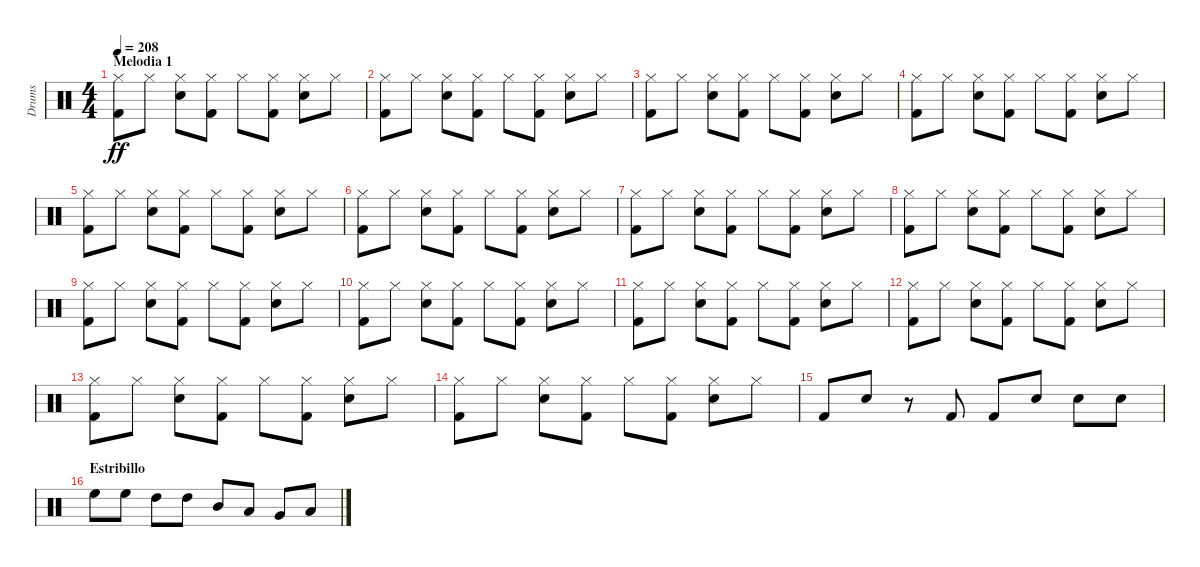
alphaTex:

\track ("Drums" "Drums") {instrument percussion}
\staff {score}
\articulation defaults
\ts (4 4)
\section ("" "Melodia 1")
\tempo 208
\clef neutral
\ks c
("Kick (hit) 2" "Hi-Hat (closed)").8{dy ff} "Hi-Hat (closed)".8 ("Snare (hit) 2" "Hi-Hat (closed)").8 ("Kick (hit) 2" "Hi-Hat (closed)").8 "Hi-Hat (closed)".8 ("Kick (hit) 2" "Hi-Hat (closed)").8 ("Snare (hit) 2" "Hi-Hat (closed)").8 "Hi-Hat (closed)".8 |
("Kick (hit) 2" "Hi-Hat (closed)").8 "Hi-Hat (closed)".8 ("Snare (hit) 2" "Hi-Hat (closed)").8 ("Kick (hit) 2" "Hi-Hat (closed)").8 "Hi-Hat (closed)".8 ("Kick (hit) 2" "Hi-Hat (closed)").8 ("Snare (hit) 2" "Hi-Hat (closed)").8 "Hi-Hat (closed)".8 |
("Kick (hit) 2" "Hi-Hat (closed)").8 "Hi-Hat (closed)".8 ("Snare (hit) 2" "Hi-Hat (closed)").8 ("Kick (hit) 2" "Hi-Hat (closed)").8 "Hi-Hat (closed)".8 ("Kick (hit) 2" "Hi-Hat (closed)").8 ("Snare (hit) 2" "Hi-Hat (closed)").8 "Hi-Hat (closed)".8 |
("Kick (hit) 2" "Hi-Hat (closed)").8 "Hi-Hat (closed)".8 ("Snare (hit) 2" "Hi-Hat (closed)").8 ("Kick (hit) 2" "Hi-Hat (closed)").8 "Hi-Hat (closed)".8 ("Kick (hit) 2" "Hi-Hat (closed)").8 ("Snare (hit) 2" "Hi-Hat (closed)").8 "Hi-Hat (closed)".8 |
("Kick (hit) 2" "Hi-Hat (closed)").8 "Hi-Hat (closed)".8 ("Snare (hit) 2" "Hi-Hat (closed)").8 ("Kick (hit) 2" "Hi-Hat (closed)").8 "Hi-Hat (closed)".8 ("Kick (hit) 2" "Hi-Hat (closed)").8 ("Snare (hit) 2" "Hi-Hat (closed)").8 "Hi-Hat (closed)".8 |
("Kick (hit) 2" "Hi-Hat (closed)").8 "Hi-Hat (closed)".8 ("Snare (hit) 2" "Hi-Hat (closed)").8 ("Kick (hit) 2" "Hi-Hat (closed)").8 "Hi-Hat (closed)".8 ("Kick (hit) 2" "Hi-Hat (closed)").8 ("Snare (hit) 2" "Hi-Hat (closed)").8 "Hi-Hat (closed)".8 |
("Kick (hit) 2" "Hi-Hat (closed)").8 "Hi-Hat (closed)".8 ("Snare (hit) 2" "Hi-Hat (closed)").8 ("Kick (hit) 2" "Hi-Hat (closed)").8 "Hi-Hat (closed)".8 ("Kick (hit) 2" "Hi-Hat (closed)").8 ("Snare (hit) 2" "Hi-Hat (closed)").8 "Hi-Hat (closed)".8 |
("Kick (hit) 2" "Hi-Hat (closed)").8 "Hi-Hat (closed)".8 ("Snare (hit) 2" "Hi-Hat (closed)").8 ("Kick (hit) 2" "Hi-Hat (closed)").8 "Hi-Hat (closed)".8 ("Kick (hit) 2" "Hi-Hat (closed)").8 ("Snare (hit) 2" "Hi-Hat (closed)").8 "Hi-Hat (closed)".8 |
("Kick (hit) 2" "Hi-Hat (closed)").8 "Hi-Hat (closed)".8 ("Snare (hit) 2" "Hi-Hat (closed)").8 ("Kick (hit) 2" "Hi-Hat (closed)").8 "Hi-Hat (closed)".8 ("Kick (hit) 2" "Hi-Hat (closed)").8 ("Snare (hit) 2" "Hi-Hat (closed)").8 "Hi-Hat (closed)".8 |
("Kick (hit) 2" "Hi-Hat (closed)").8 "Hi-Hat (closed)".8 ("Snare (hit) 2" "Hi-Hat (closed)").8 ("Kick (hit) 2" "Hi-Hat (closed)").8 "Hi-Hat (closed)".8 ("Kick (hit) 2" "Hi-Hat (closed)").8 ("Snare (hit) 2" "Hi-Hat (closed)").8 "Hi-Hat (closed)".8 |
("Kick (hit) 2" "Hi-Hat (closed)").8 "Hi-Hat (closed)".8 ("Snare (hit) 2" "Hi-Hat (closed)").8 ("Kick (hit) 2" "Hi-Hat (closed)").8 "Hi-Hat (closed)".8 ("Kick (hit) 2" "Hi-Hat (closed)").8 ("Snare (hit) 2" "Hi-Hat (closed)").8 "Hi-Hat (closed)".8 |
("Kick (hit) 2" "Hi-Hat (closed)").8 "Hi-Hat (closed)".8 ("Snare (hit) 2" "Hi-Hat (closed)").8 ("Kick (hit) 2" "Hi-Hat (closed)").8 "Hi-Hat (closed)".8 ("Kick (hit) 2" "Hi-Hat (closed)").8 ("Snare (hit) 2" "Hi-Hat (closed)").8 "Hi-Hat (closed)".8 |
("Kick (hit) 2" "Hi-Hat (closed)").8 "Hi-Hat (closed)".8 ("Snare (hit) 2" "Hi-Hat (closed)").8 ("Kick (hit) 2" "Hi-Hat (closed)").8 "Hi-Hat (closed)".8 ("Kick (hit) 2" "Hi-Hat (closed)").8 ("Snare (hit) 2" "Hi-Hat (closed)").8 "Hi-Hat (closed)".8 |
("Kick (hit) 2" "Hi-Hat (closed)").8 "Hi-Hat (closed)".8 ("Snare (hit) 2" "Hi-Hat (closed)").8 ("Kick (hit) 2" "Hi-Hat (closed)").8 "Hi-Hat (closed)".8 ("Kick (hit) 2" "Hi-Hat (closed)").8 ("Snare (hit) 2" "Hi-Hat (closed)").8 "Hi-Hat (closed)".8 |
"Kick (hit) 2".8 "Snare (hit) 2".8 r.8 "Kick (hit) 2".8 "Kick (hit) 2".8 "Snare (hit) 2".8 "Snare (hit) 2".8 "Snare (hit) 2".8 |
\section ("" "Estribillo")
"High Floor Tom (hit)".8 "High Floor Tom (hit)".8 "High Tom (hit)".8 "High Tom (hit)".8 "Mid Tom (hit)".8 "Low Tom (hit)".8 "Very Low Tom (hit)".8 "Low Floor Tom (hit)".8
